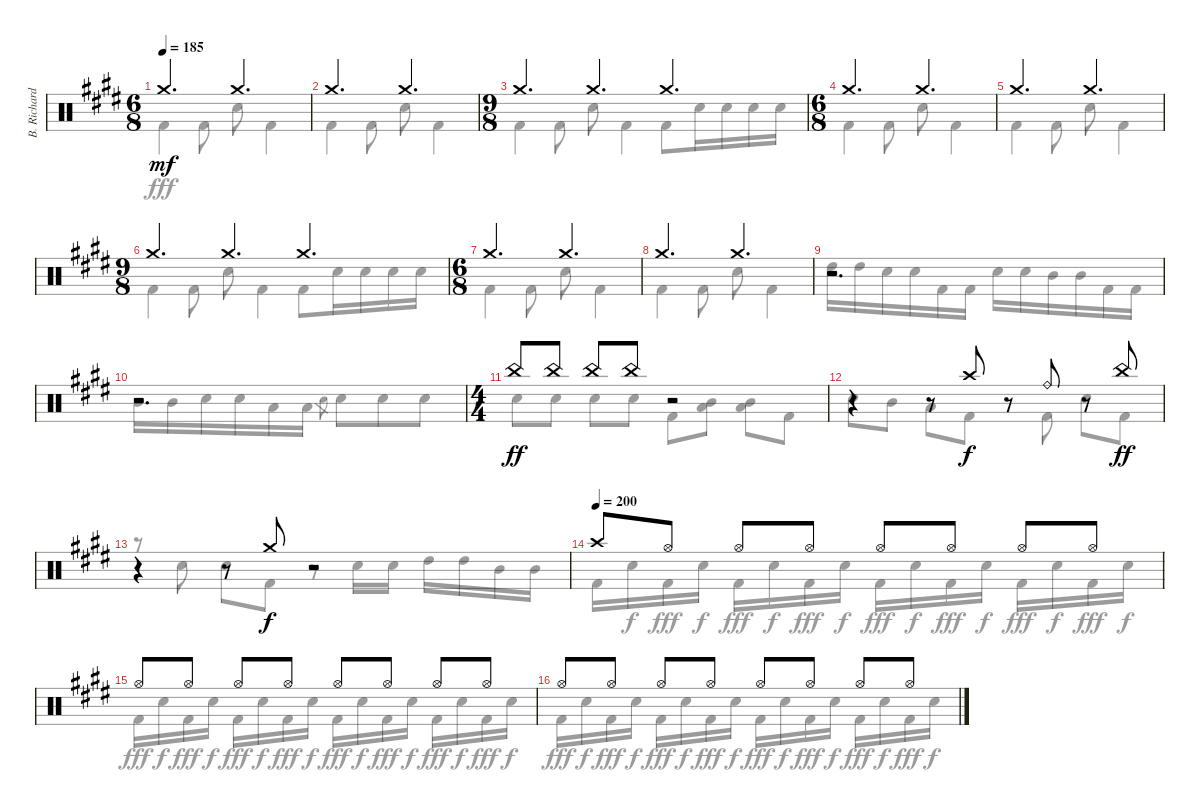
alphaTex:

\track ("B. Richardson Drums" "B. Richard") {instrument percussion}
\staff {score}
\articulation defaults
\voice
\ts (6 8)
\tempo 185
\clef neutral
\ks c#minor "Crash medium (hit)".4{d dy mf} "Crash medium (hit)".4{d}
|
"Crash medium (hit)".4{d} "Crash medium (hit)".4{d} |
\ts (9 8)
"Crash medium (hit)".4{d} "Crash medium (hit)".4{d} "Crash medium (hit)".4{d} |
\ts (6 8)
"Crash medium (hit)".4{d} "Crash medium (hit)".4{d} |
"Crash medium (hit)".4{d} "Crash medium (hit)".4{d} |
\ts (9 8)
"Crash medium (hit)".4{d} "Crash medium (hit)".4{d} "Crash medium (hit)".4{d} |
\ts (6 8)
"Crash medium (hit)".4{d} "Crash medium (hit)".4{d} |
"Crash medium (hit)".4{d} "Crash medium (hit)".4{d} |
r.2{d} |
r.2{d} |
\ts (4 4)
"China (hit)".8{dy ff} "China (hit)".8 "China (hit)".8 "China (hit)".8 r.2 |
r.4 r.8 "Crash high (hit)".8{dy f} r.8 "Ride (bell)".8 r.8 "China (hit)".8{dy ff} |
r.4 r.8 "Crash medium (hit)".8{dy f} r.2 |
\tempo (200)
"Crash high (hit)".8 "Hi-Hat (open)".8 "Hi-Hat (open)".8 "Hi-Hat (open)".8 "Hi-Hat (open)".8 "Hi-Hat (open)".8 "Hi-Hat (open)".8 "Hi-Hat (open)".8 |
"Hi-Hat (open)".8 "Hi-Hat (open)".8 "Hi-Hat (open)".8 "Hi-Hat (open)".8 "Hi-Hat (open)".8 "Hi-Hat (open)".8 "Hi-Hat (open)".8 "Hi-Hat (open)".8 |
"Hi-Hat (open)".8 "Hi-Hat (open)".8 "Hi-Hat (open)".8 "Hi-Hat (open)".8 "Hi-Hat (open)".8 "Hi-Hat (open)".8 "Hi-Hat (open)".8 "Hi-Hat (open)".8
\voice
\clef neutral
\ottava regular
\simile none
\ks c#minor "Kick (hit) 2".4{dy fff} "Kick (hit) 2".8 "Electric Snare (hit)".8 "Kick (hit) 2".4
|
"Kick (hit) 2".4 "Kick (hit) 2".8 "Electric Snare (hit)".8 "Kick (hit) 2".4 |
"Kick (hit) 2".4 "Kick (hit) 2".8 "Electric Snare (hit)".8 "Kick (hit) 2".4 "Kick (hit) 2".8 "Electric Snare (hit)".16 "Electric Snare (hit)".16 "Electric Snare (hit)".16 "Electric Snare (hit)".16 |
"Kick (hit) 2".4 "Kick (hit) 2".8 "Electric Snare (hit)".8 "Kick (hit) 2".4 |
"Kick (hit) 2".4 "Kick (hit) 2".8 "Electric Snare (hit)".8 "Kick (hit) 2".4 |
"Kick (hit) 2".4 "Kick (hit) 2".8 "Electric Snare (hit)".8 "Kick (hit) 2".4 "Kick (hit) 2".8 "Electric Snare (hit)".16 "Electric Snare (hit)".16 "Electric Snare (hit)".16 "Electric Snare (hit)".16 |
"Kick (hit) 2".4 "Kick (hit) 2".8 "Electric Snare (hit)".8 "Kick (hit) 2".4 |
"Kick (hit) 2".4 "Kick (hit) 2".8 "Electric Snare (hit)".8 "Kick (hit) 2".4 |
"High Tom (hit)".16 "High Tom (hit)".16 "Electric Snare (hit)".16 "Electric Snare (hit)".16 "Kick (hit) 2".16 "Kick (hit) 2".16 "Electric Snare (hit)".16 "Electric Snare (hit)".16 "Mid Tom (hit)".16 "Mid Tom (hit)".16 "Kick (hit) 2".16 "Kick (hit) 2".16 |
"Mid Tom (hit)".16 "Mid Tom (hit)".16 "Electric Snare (hit)".16 "Electric Snare (hit)".16 "Low Tom (hit)".16 "Low Tom (hit)".16 "Electric Snare (hit)".8{gr} "Electric Snare (hit)".8 "Electric Snare (hit)".8 "Electric Snare (hit)".8 |
"Electric Snare (hit)".8 "Electric Snare (hit)".8 "Electric Snare (hit)".8 "Electric Snare (hit)".8 "Kick (hit) 2".8 ("Mid Tom (hit)" "Low Tom (hit)").8 ("Mid Tom (hit)" "Low Tom (hit)").8 "Kick (hit) 2".8 |
"Electric Snare (hit)".8 "Mid Tom (hit)".8 "Low Tom (hit)".8 "Kick (hit) 2".8 r.8 "Kick (hit) 2".8 "Electric Snare (hit)".8 "Kick (hit) 2".8 |
r.8 "Electric Snare (hit)".8 "Electric Snare (hit)".8 "Kick (hit) 2".8 r.8 "Electric Snare (hit)".16 "Electric Snare (hit)".16 "High Tom (hit)".16 "High Tom (hit)".16 "Mid Tom (hit)".16 "Mid Tom (hit)".16 |
"Kick (hit) 2".16 "Electric Snare (hit)".16{dy f} "Kick (hit) 2".16{dy fff} "Electric Snare (hit)".16{dy f} "Kick (hit) 2".16{dy fff} "Electric Snare (hit)".16{dy f} "Kick (hit) 2".16{dy fff} "Electric Snare (hit)".16{dy f} "Kick (hit) 2".16{dy fff} "Electric Snare (hit)".16{dy f} "Kick (hit) 2".16{dy fff} "Electric Snare (hit)".16{dy f} "Kick (hit) 2".16{dy fff} "Electric Snare (hit)".16{dy f} "Kick (hit) 2".16{dy fff} "Electric Snare (hit)".16{dy f} |
"Kick (hit) 2".16{dy fff} "Electric Snare (hit)".16{dy f} "Kick (hit) 2".16{dy fff} "Electric Snare (hit)".16{dy f} "Kick (hit) 2".16{dy fff} "Electric Snare (hit)".16{dy f} "Kick (hit) 2".16{dy fff} "Electric Snare (hit)".16{dy f} "Kick (hit) 2".16{dy fff} "Electric Snare (hit)".16{dy f} "Kick (hit) 2".16{dy fff} "Electric Snare (hit)".16{dy f} "Kick (hit) 2".16{dy fff} "Electric Snare (hit)".16{dy f} "Kick (hit) 2".16{dy fff} "Electric Snare (hit)".16{dy f} |
"Kick (hit) 2".16{dy fff} "Electric Snare (hit)".16{dy f} "Kick (hit) 2".16{dy fff} "Electric Snare (hit)".16{dy f} "Kick (hit) 2".16{dy fff} "Electric Snare (hit)".16{dy f} "Kick (hit) 2".16{dy fff} "Electric Snare (hit)".16{dy f} "Kick (hit) 2".16{dy fff} "Electric Snare (hit)".16{dy f} "Kick (hit) 2".16{dy fff} "Electric Snare (hit)".16{dy f} "Kick (hit) 2".16{dy fff} "Electric Snare (hit)".16{dy f} "Kick (hit) 2".16{dy fff} "Electric Snare (hit)".16{dy f}
